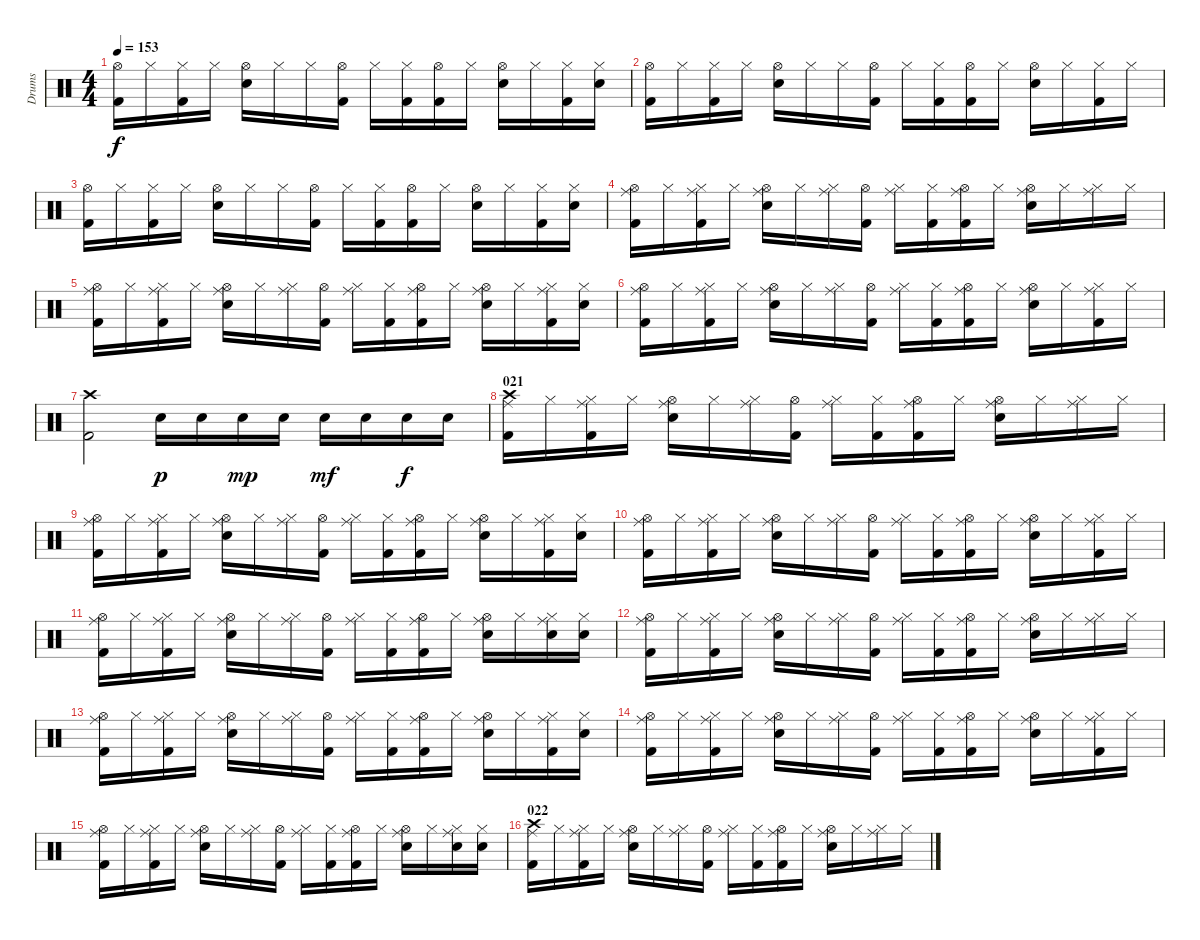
\track ("Drums" "Drums") {instrument percussion}
\staff {score}
\articulation defaults
\ts (4 4)
\tempo 153
\clef neutral
\ks c
("Hi-Hat (open)" "Kick (hit) 2").16{dy f} "Hi-Hat (closed)".16 ("Hi-Hat (closed)" "Kick (hit) 2").16 "Hi-Hat (closed)".16 ("Hi-Hat (open)" "Electric Snare (hit)").16 "Hi-Hat (closed)".16 "Hi-Hat (closed)".16 ("Hi-Hat (open)" "Kick (hit) 2").16 "Hi-Hat (closed)".16 ("Hi-Hat (closed)" "Kick (hit) 2").16 ("Hi-Hat (open)" "Kick (hit) 2").16 "Hi-Hat (closed)".16 ("Hi-Hat (open)" "Electric Snare (hit)").16 "Hi-Hat (closed)".16 ("Hi-Hat (closed)" "Kick (hit) 2").16 ("Hi-Hat (closed)" "Electric Snare (hit)").16 |
("Hi-Hat (open)" "Kick (hit) 2").16 "Hi-Hat (closed)".16 ("Hi-Hat (closed)" "Kick (hit) 2").16 "Hi-Hat (closed)".16 ("Hi-Hat (open)" "Electric Snare (hit)").16 "Hi-Hat (closed)".16 "Hi-Hat (closed)".16 ("Hi-Hat (open)" "Kick (hit) 2").16 "Hi-Hat (closed)".16 ("Hi-Hat (closed)" "Kick (hit) 2").16 ("Hi-Hat (open)" "Kick (hit) 2").16 "Hi-Hat (closed)".16 ("Hi-Hat (open)" "Electric Snare (hit)").16 "Hi-Hat (closed)".16 ("Hi-Hat (closed)" "Kick (hit) 2").16 "Hi-Hat (closed)".16 |
("Hi-Hat (open)" "Kick (hit) 2").16 "Hi-Hat (closed)".16 ("Hi-Hat (closed)" "Kick (hit) 2").16 "Hi-Hat (closed)".16 ("Hi-Hat (open)" "Electric Snare (hit)").16 "Hi-Hat (closed)".16 "Hi-Hat (closed)".16 ("Hi-Hat (open)" "Kick (hit) 2").16 "Hi-Hat (closed)".16 ("Hi-Hat (closed)" "Kick (hit) 2").16 ("Hi-Hat (open)" "Kick (hit) 2").16 "Hi-Hat (closed)".16 ("Hi-Hat (open)" "Electric Snare (hit)").16 "Hi-Hat (closed)".16 ("Hi-Hat (closed)" "Kick (hit) 2").16 ("Hi-Hat (closed)" "Electric Snare (hit)").16 |
("Hi-Hat (open)" "Kick (hit) 2" "Ride (middle)").16 "Hi-Hat (closed)".16 ("Hi-Hat (closed)" "Kick (hit) 2" "Ride (middle)").16 "Hi-Hat (closed)".16 ("Hi-Hat (open)" "Electric Snare (hit)" "Ride (middle)").16 "Hi-Hat (closed)".16 ("Hi-Hat (closed)" "Ride (middle)").16 ("Hi-Hat (open)" "Kick (hit) 2").16 ("Hi-Hat (closed)" "Ride (middle)").16 ("Hi-Hat (closed)" "Kick (hit) 2").16 ("Hi-Hat (open)" "Kick (hit) 2" "Ride (middle)").16 "Hi-Hat (closed)".16 ("Hi-Hat (open)" "Electric Snare (hit)" "Ride (middle)").16 "Hi-Hat (closed)".16 ("Hi-Hat (closed)" "Ride (middle)").16 "Hi-Hat (closed)".16 |
("Hi-Hat (open)" "Kick (hit) 2" "Ride (middle)").16 "Hi-Hat (closed)".16 ("Hi-Hat (closed)" "Kick (hit) 2" "Ride (middle)").16 "Hi-Hat (closed)".16 ("Hi-Hat (open)" "Electric Snare (hit)" "Ride (middle)").16 "Hi-Hat (closed)".16 ("Hi-Hat (closed)" "Ride (middle)").16 ("Hi-Hat (open)" "Kick (hit) 2").16 ("Hi-Hat (closed)" "Ride (middle)").16 ("Hi-Hat (closed)" "Kick (hit) 2").16 ("Hi-Hat (open)" "Kick (hit) 2" "Ride (middle)").16 "Hi-Hat (closed)".16 ("Hi-Hat (open)" "Electric Snare (hit)" "Ride (middle)").16 "Hi-Hat (closed)".16 ("Hi-Hat (closed)" "Kick (hit) 2" "Ride (middle)").16 ("Hi-Hat (closed)" "Electric Snare (hit)").16 |
("Hi-Hat (open)" "Kick (hit) 2" "Ride (middle)").16 "Hi-Hat (closed)".16 ("Hi-Hat (closed)" "Kick (hit) 2" "Ride (middle)").16 "Hi-Hat (closed)".16 ("Hi-Hat (open)" "Electric Snare (hit)" "Ride (middle)").16 "Hi-Hat (closed)".16 ("Hi-Hat (closed)" "Ride (middle)").16 ("Hi-Hat (open)" "Kick (hit) 2").16 ("Hi-Hat (closed)" "Ride (middle)").16 ("Hi-Hat (closed)" "Kick (hit) 2").16 ("Hi-Hat (open)" "Kick (hit) 2" "Ride (middle)").16 "Hi-Hat (closed)".16 ("Hi-Hat (open)" "Electric Snare (hit)" "Ride (middle)").16 "Hi-Hat (closed)".16 ("Hi-Hat (closed)" "Kick (hit) 2" "Ride (middle)").16 "Hi-Hat (closed)".16 |
("Kick (hit) 2" "Crash high (hit)").2 "Electric Snare (hit)".16{dy p} "Electric Snare (hit)".16 "Electric Snare (hit)".16{dy mp} "Electric Snare (hit)".16 "Electric Snare (hit)".16{dy mf} "Electric Snare (hit)".16 "Electric Snare (hit)".16{dy f} "Electric Snare (hit)".16 |
\section ("" "021")
("Crash high (hit)" "Kick (hit) 2" "Ride (middle)").16 "Hi-Hat (closed)".16 ("Hi-Hat (closed)" "Kick (hit) 2" "Ride (middle)").16 "Hi-Hat (closed)".16 ("Hi-Hat (open)" "Electric Snare (hit)" "Ride (middle)").16 "Hi-Hat (closed)".16 ("Hi-Hat (closed)" "Ride (middle)").16 ("Hi-Hat (open)" "Kick (hit) 2").16 ("Hi-Hat (closed)" "Ride (middle)").16 ("Hi-Hat (closed)" "Kick (hit) 2").16 ("Hi-Hat (open)" "Kick (hit) 2" "Ride (middle)").16 "Hi-Hat (closed)".16 ("Hi-Hat (open)" "Electric Snare (hit)" "Ride (middle)").16 "Hi-Hat (closed)".16 ("Hi-Hat (closed)" "Ride (middle)").16 "Hi-Hat (closed)".16 |
("Hi-Hat (open)" "Kick (hit) 2" "Ride (middle)").16 "Hi-Hat (closed)".16 ("Hi-Hat (closed)" "Kick (hit) 2" "Ride (middle)").16 "Hi-Hat (closed)".16 ("Hi-Hat (open)" "Electric Snare (hit)" "Ride (middle)").16 "Hi-Hat (closed)".16 ("Hi-Hat (closed)" "Ride (middle)").16 ("Hi-Hat (open)" "Kick (hit) 2").16 ("Hi-Hat (closed)" "Ride (middle)").16 ("Hi-Hat (closed)" "Kick (hit) 2").16 ("Hi-Hat (open)" "Kick (hit) 2" "Ride (middle)").16 "Hi-Hat (closed)".16 ("Hi-Hat (open)" "Electric Snare (hit)" "Ride (middle)").16 "Hi-Hat (closed)".16 ("Hi-Hat (closed)" "Kick (hit) 2" "Ride (middle)").16 ("Hi-Hat (closed)" "Electric Snare (hit)").16 |
("Hi-Hat (open)" "Kick (hit) 2" "Ride (middle)").16 "Hi-Hat (closed)".16 ("Hi-Hat (closed)" "Kick (hit) 2" "Ride (middle)").16 "Hi-Hat (closed)".16 ("Hi-Hat (open)" "Electric Snare (hit)" "Ride (middle)").16 "Hi-Hat (closed)".16 ("Hi-Hat (closed)" "Ride (middle)").16 ("Hi-Hat (open)" "Kick (hit) 2").16 ("Hi-Hat (closed)" "Ride (middle)").16 ("Hi-Hat (closed)" "Kick (hit) 2").16 ("Hi-Hat (open)" "Kick (hit) 2" "Ride (middle)").16 "Hi-Hat (closed)".16 ("Hi-Hat (open)" "Electric Snare (hit)" "Ride (middle)").16 "Hi-Hat (closed)".16 ("Hi-Hat (closed)" "Kick (hit) 2" "Ride (middle)").16 "Hi-Hat (closed)".16 |
("Hi-Hat (open)" "Kick (hit) 2" "Ride (middle)").16 "Hi-Hat (closed)".16 ("Hi-Hat (closed)" "Kick (hit) 2" "Ride (middle)").16 "Hi-Hat (closed)".16 ("Hi-Hat (open)" "Electric Snare (hit)" "Ride (middle)").16 "Hi-Hat (closed)".16 ("Hi-Hat (closed)" "Ride (middle)").16 ("Hi-Hat (open)" "Kick (hit) 2").16 ("Hi-Hat (closed)" "Ride (middle)").16 ("Hi-Hat (closed)" "Kick (hit) 2").16 ("Hi-Hat (open)" "Kick (hit) 2" "Ride (middle)").16 "Hi-Hat (closed)".16 ("Hi-Hat (open)" "Electric Snare (hit)" "Ride (middle)").16 "Hi-Hat (closed)".16 ("Hi-Hat (closed)" "Electric Snare (hit)" "Ride (middle)").16 ("Hi-Hat (closed)" "Electric Snare (hit)").16 |
("Hi-Hat (open)" "Kick (hit) 2" "Ride (middle)").16 "Hi-Hat (closed)".16 ("Hi-Hat (closed)" "Kick (hit) 2" "Ride (middle)").16 "Hi-Hat (closed)".16 ("Hi-Hat (open)" "Electric Snare (hit)" "Ride (middle)").16 "Hi-Hat (closed)".16 ("Hi-Hat (closed)" "Ride (middle)").16 ("Hi-Hat (open)" "Kick (hit) 2").16 ("Hi-Hat (closed)" "Ride (middle)").16 ("Hi-Hat (closed)" "Kick (hit) 2").16 ("Hi-Hat (open)" "Kick (hit) 2" "Ride (middle)").16 "Hi-Hat (closed)".16 ("Hi-Hat (open)" "Electric Snare (hit)" "Ride (middle)").16 "Hi-Hat (closed)".16 ("Hi-Hat (closed)" "Ride (middle)").16 "Hi-Hat (closed)".16 |
("Hi-Hat (open)" "Kick (hit) 2" "Ride (middle)").16 "Hi-Hat (closed)".16 ("Hi-Hat (closed)" "Kick (hit) 2" "Ride (middle)").16 "Hi-Hat (closed)".16 ("Hi-Hat (open)" "Electric Snare (hit)" "Ride (middle)").16 "Hi-Hat (closed)".16 ("Hi-Hat (closed)" "Ride (middle)").16 ("Hi-Hat (open)" "Kick (hit) 2").16 ("Hi-Hat (closed)" "Ride (middle)").16 ("Hi-Hat (closed)" "Kick (hit) 2").16 ("Hi-Hat (open)" "Kick (hit) 2" "Ride (middle)").16 "Hi-Hat (closed)".16 ("Hi-Hat (open)" "Electric Snare (hit)" "Ride (middle)").16 "Hi-Hat (closed)".16 ("Hi-Hat (closed)" "Kick (hit) 2" "Ride (middle)").16 ("Hi-Hat (closed)" "Electric Snare (hit)").16 |
("Hi-Hat (open)" "Kick (hit) 2" "Ride (middle)").16 "Hi-Hat (closed)".16 ("Hi-Hat (closed)" "Kick (hit) 2" "Ride (middle)").16 "Hi-Hat (closed)".16 ("Hi-Hat (open)" "Electric Snare (hit)" "Ride (middle)").16 "Hi-Hat (closed)".16 ("Hi-Hat (closed)" "Ride (middle)").16 ("Hi-Hat (open)" "Kick (hit) 2").16 ("Hi-Hat (closed)" "Ride (middle)").16 ("Hi-Hat (closed)" "Kick (hit) 2").16 ("Hi-Hat (open)" "Kick (hit) 2" "Ride (middle)").16 "Hi-Hat (closed)".16 ("Hi-Hat (open)" "Electric Snare (hit)" "Ride (middle)").16 "Hi-Hat (closed)".16 ("Hi-Hat (closed)" "Kick (hit) 2" "Ride (middle)").16 "Hi-Hat (closed)".16 |
("Hi-Hat (open)" "Kick (hit) 2" "Ride (middle)").16 "Hi-Hat (closed)".16 ("Hi-Hat (closed)" "Kick (hit) 2" "Ride (middle)").16 "Hi-Hat (closed)".16 ("Hi-Hat (open)" "Electric Snare (hit)" "Ride (middle)").16 "Hi-Hat (closed)".16 ("Hi-Hat (closed)" "Ride (middle)").16 ("Hi-Hat (open)" "Kick (hit) 2").16 ("Hi-Hat (closed)" "Ride (middle)").16 ("Hi-Hat (closed)" "Kick (hit) 2").16 ("Hi-Hat (open)" "Kick (hit) 2" "Ride (middle)").16 "Hi-Hat (closed)".16 ("Hi-Hat (open)" "Electric Snare (hit)" "Ride (middle)").16 "Hi-Hat (closed)".16 ("Hi-Hat (closed)" "Electric Snare (hit)" "Ride (middle)").16 ("Hi-Hat (closed)" "Electric Snare (hit)").16 |
\section ("" "022")
("Crash high (hit)" "Kick (hit) 2" "Ride (middle)").16 "Hi-Hat (closed)".16 ("Hi-Hat (closed)" "Kick (hit) 2" "Ride (middle)").16 "Hi-Hat (closed)".16 ("Hi-Hat (open)" "Electric Snare (hit)" "Ride (middle)").16 "Hi-Hat (closed)".16 ("Hi-Hat (closed)" "Ride (middle)").16 ("Hi-Hat (open)" "Kick (hit) 2").16 ("Hi-Hat (closed)" "Ride (middle)").16 ("Hi-Hat (closed)" "Kick (hit) 2").16 ("Hi-Hat (open)" "Kick (hit) 2" "Ride (middle)").16 "Hi-Hat (closed)".16 ("Hi-Hat (open)" "Electric Snare (hit)" "Ride (middle)").16 "Hi-Hat (closed)".16 ("Hi-Hat (closed)" "Ride (middle)").16 "Hi-Hat (closed)".16
